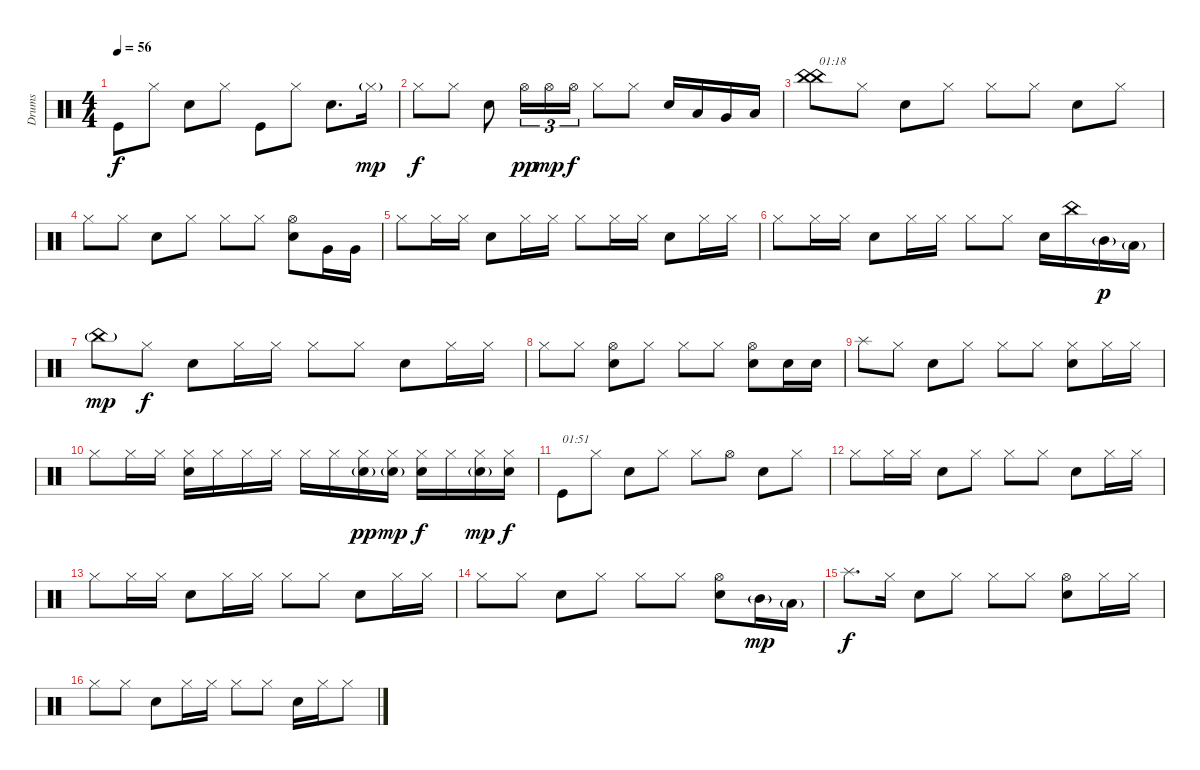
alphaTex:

\track ("Drums" "Drums") {instrument percussion}
\staff {score}
\articulation defaults
\ts (4 4)
\tempo 56
\clef neutral
\ks c "Kick (hit)".8{dy f} "Hi-Hat (closed)".8 "Electric Snare (hit)".8 "Hi-Hat (closed)".8 "Kick (hit)".8 "Hi-Hat (closed)".8 "Electric Snare (hit)".8{d} "Hi-Hat (closed)"{g}.16{dy mp}
|
"Hi-Hat (closed)".8{dy f} "Hi-Hat (closed)".8 "Electric Snare (hit)".8 "Hi-Hat (open)".16{tu (3 2) dy pp} "Hi-Hat (open)".16{tu (3 2) dy mp} "Hi-Hat (open)".16{tu (3 2) dy f} "Hi-Hat (closed)".8 "Hi-Hat (closed)".8 "Electric Snare (hit)".16 "Low Floor Tom (hit)".16 "Very Low Tom (hit)".16 "Low Tom (hit)".16 |
("China (hit)" "China (hit)").8{txt "01:18"} "Hi-Hat (closed)".8 "Electric Snare (hit)".8 "Hi-Hat (closed)".8 "Hi-Hat (closed)".8 "Hi-Hat (closed)".8 "Electric Snare (hit)".8 "Hi-Hat (closed)".8 |
"Hi-Hat (closed)".8 "Hi-Hat (closed)".8 "Electric Snare (hit)".8 "Hi-Hat (closed)".8 "Hi-Hat (closed)".8 "Hi-Hat (closed)".8 ("Hi-Hat (open)" "Electric Snare (hit)").8 "Very Low Tom (hit)".16 "Very Low Tom (hit)".16 |
"Hi-Hat (closed)".8 "Hi-Hat (closed)".16 "Hi-Hat (closed)".16 "Electric Snare (hit)".8 "Hi-Hat (closed)".16 "Hi-Hat (closed)".16 "Hi-Hat (closed)".8 "Hi-Hat (closed)".16 "Hi-Hat (closed)".16 "Electric Snare (hit)".8 "Hi-Hat (closed)".16 "Hi-Hat (closed)".16 |
"Hi-Hat (closed)".8 "Hi-Hat (closed)".16 "Hi-Hat (closed)".16 "Electric Snare (hit)".8 "Hi-Hat (closed)".16 "Hi-Hat (closed)".16 "Hi-Hat (closed)".8 "Hi-Hat (closed)".8 "Electric Snare (hit)".16 "China (hit)".16 "Mid Tom (hit)"{g}.16{dy p} "Low Tom (hit)"{g}.16 |
"China (hit)"{g}.8{dy mp} "Hi-Hat (closed)".8{dy f} "Electric Snare (hit)".8 "Hi-Hat (closed)".16 "Hi-Hat (closed)".16 "Hi-Hat (closed)".8 "Hi-Hat (closed)".8 "Electric Snare (hit)".8 "Hi-Hat (closed)".16 "Hi-Hat (closed)".16 |
"Hi-Hat (closed)".8 "Hi-Hat (closed)".8 ("Hi-Hat (open)" "Electric Snare (hit)").8 "Hi-Hat (closed)".8 "Hi-Hat (closed)".8 "Hi-Hat (closed)".8 ("Hi-Hat (open)" "Electric Snare (hit)").8 "Electric Snare (hit)".16 "Electric Snare (hit)".16 |
"Splash (hit)".8 "Hi-Hat (closed)".8 "Electric Snare (hit)".8 "Hi-Hat (closed)".8 "Hi-Hat (closed)".8 "Hi-Hat (closed)".8 ("Hi-Hat (closed)" "Electric Snare (hit)").8 "Hi-Hat (closed)".16 "Hi-Hat (closed)".16 |
"Hi-Hat (closed)".8 "Hi-Hat (closed)".16 "Hi-Hat (closed)".16 ("Hi-Hat (closed)" "Electric Snare (hit)").16 "Hi-Hat (closed)".16 "Hi-Hat (closed)".16 "Hi-Hat (closed)".16 "Hi-Hat (closed)".16 "Hi-Hat (closed)".16 ("Hi-Hat (closed)" "Electric Snare (hit)"{g}).16{dy pp} ("Hi-Hat (closed)" "Electric Snare (hit)"{g}).16{dy mp} ("Hi-Hat (closed)" "Electric Snare (hit)").16{dy f} "Hi-Hat (closed)".16 ("Hi-Hat (closed)" "Electric Snare (hit)"{g}).16{dy mp} ("Hi-Hat (closed)" "Electric Snare (hit)").16{dy f} |
"Kick (hit)".8{txt "01:51"} "Hi-Hat (closed)".8 "Electric Snare (hit)".8 "Hi-Hat (closed)".8 "Hi-Hat (closed)".8 "Hi-Hat (open)".8 "Electric Snare (hit)".8 "Hi-Hat (closed)".8 |
"Hi-Hat (closed)".8 "Hi-Hat (closed)".16 "Hi-Hat (closed)".16 "Electric Snare (hit)".8 "Hi-Hat (closed)".8 "Hi-Hat (closed)".8 "Hi-Hat (closed)".8 "Electric Snare (hit)".8 "Hi-Hat (closed)".16 "Hi-Hat (closed)".16 |
"Hi-Hat (closed)".8 "Hi-Hat (closed)".16 "Hi-Hat (closed)".16 "Electric Snare (hit)".8 "Hi-Hat (closed)".16 "Hi-Hat (closed)".16 "Hi-Hat (closed)".8 "Hi-Hat (closed)".8 "Electric Snare (hit)".8 "Hi-Hat (closed)".16 "Hi-Hat (closed)".16 |
"Hi-Hat (closed)".8 "Hi-Hat (closed)".8 "Electric Snare (hit)".8 "Hi-Hat (closed)".8 "Hi-Hat (closed)".8 "Hi-Hat (closed)".8 ("Hi-Hat (open)" "Electric Snare (hit)").8 "Mid Tom (hit)"{g}.16{dy mp} "Low Tom (hit)"{g}.16 |
"Splash (hit)".8{d dy f} "Hi-Hat (closed)".16 "Electric Snare (hit)".8 "Hi-Hat (closed)".8 "Hi-Hat (closed)".8 "Hi-Hat (closed)".8 ("Hi-Hat (open)" "Electric Snare (hit)").8 "Hi-Hat (closed)".16 "Hi-Hat (closed)".16 |
"Hi-Hat (closed)".8 "Hi-Hat (closed)".8 "Electric Snare (hit)".8 "Hi-Hat (closed)".16 "Hi-Hat (closed)".16 "Hi-Hat (closed)".8 "Hi-Hat (closed)".8 "Electric Snare (hit)".16 "Hi-Hat (closed)".16 "Hi-Hat (closed)".8
